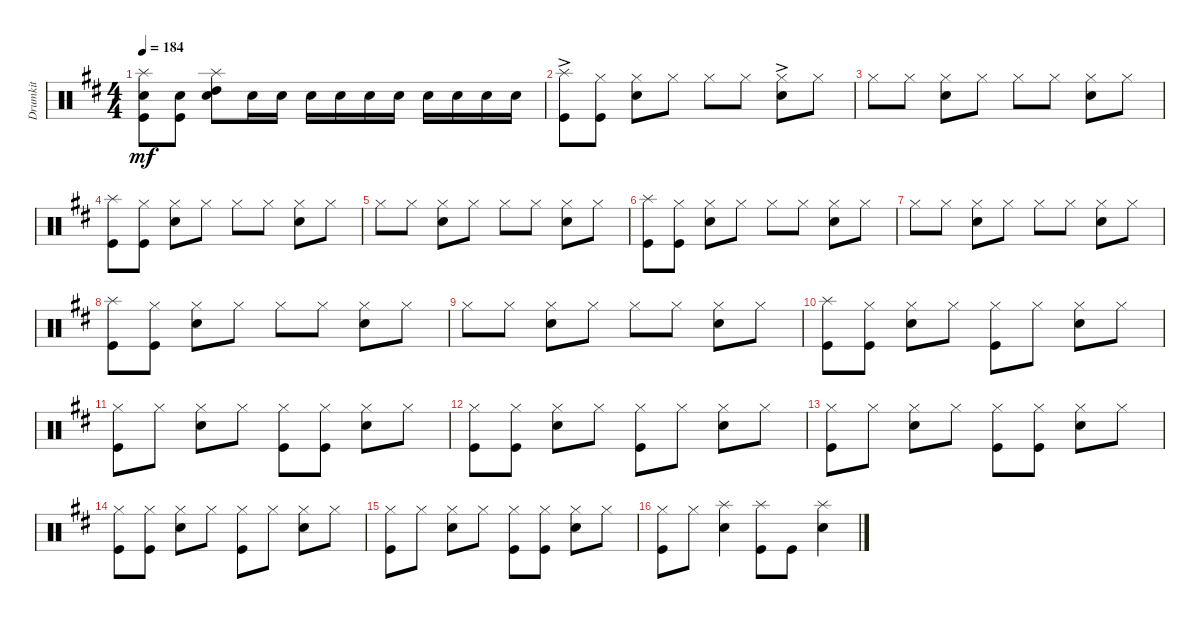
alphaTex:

\track ("Drumkit" "Drumkit") {instrument percussion}
\staff {score}
\articulation defaults
\ts (4 4)
\tempo 184
\clef neutral
\ks d
("Splash (hit)"{t} "Kick (hit)" "Snare (hit) 2").8{dy mf} ("Kick (hit)" "Snare (hit) 2").8 ("Snare (hit) 2" "High Tom (hit)" "Splash (hit)").8 "Snare (hit) 2".16 "Snare (hit) 2".16 "Snare (hit) 2".16 "Snare (hit) 2".16 "Snare (hit) 2".16 "Snare (hit) 2".16 "Snare (hit) 2".16 "Snare (hit) 2".16 "Snare (hit) 2".16 "Snare (hit) 2".16 |
("Kick (hit)" "Splash (hit)"{ac}).8 ("Kick (hit)" "Hi-Hat (closed)").8 ("Hi-Hat (closed)" "Snare (hit) 2").8 "Hi-Hat (closed)".8 "Hi-Hat (closed)".8 "Hi-Hat (closed)".8 ("Hi-Hat (closed)"{ac} "Snare (hit) 2").8 "Hi-Hat (closed)".8 |
"Hi-Hat (closed)".8 "Hi-Hat (closed)".8 ("Hi-Hat (closed)" "Snare (hit) 2").8 "Hi-Hat (closed)".8 "Hi-Hat (closed)".8 "Hi-Hat (closed)".8 ("Hi-Hat (closed)" "Snare (hit) 2").8 "Hi-Hat (closed)".8 |
("Kick (hit)" "Splash (hit)").8 ("Kick (hit)" "Hi-Hat (closed)").8 ("Hi-Hat (closed)" "Snare (hit) 2").8 "Hi-Hat (closed)".8 "Hi-Hat (closed)".8 "Hi-Hat (closed)".8 ("Hi-Hat (closed)" "Snare (hit) 2").8 "Hi-Hat (closed)".8 |
"Hi-Hat (closed)".8 "Hi-Hat (closed)".8 ("Hi-Hat (closed)" "Snare (hit) 2").8 "Hi-Hat (closed)".8 "Hi-Hat (closed)".8 "Hi-Hat (closed)".8 ("Hi-Hat (closed)" "Snare (hit) 2").8 "Hi-Hat (closed)".8 |
("Kick (hit)" "Splash (hit)").8 ("Kick (hit)" "Hi-Hat (closed)").8 ("Hi-Hat (closed)" "Snare (hit) 2").8 "Hi-Hat (closed)".8 "Hi-Hat (closed)".8 "Hi-Hat (closed)".8 ("Hi-Hat (closed)" "Snare (hit) 2").8 "Hi-Hat (closed)".8 |
"Hi-Hat (closed)".8 "Hi-Hat (closed)".8 ("Hi-Hat (closed)" "Snare (hit) 2").8 "Hi-Hat (closed)".8 "Hi-Hat (closed)".8 "Hi-Hat (closed)".8 ("Hi-Hat (closed)" "Snare (hit) 2").8 "Hi-Hat (closed)".8 |
("Kick (hit)" "Splash (hit)").8 ("Kick (hit)" "Hi-Hat (closed)").8 ("Hi-Hat (closed)" "Snare (hit) 2").8 "Hi-Hat (closed)".8 "Hi-Hat (closed)".8 "Hi-Hat (closed)".8 ("Hi-Hat (closed)" "Snare (hit) 2").8 "Hi-Hat (closed)".8 |
"Hi-Hat (closed)".8 "Hi-Hat (closed)".8 ("Hi-Hat (closed)" "Snare (hit) 2").8 "Hi-Hat (closed)".8 "Hi-Hat (closed)".8 "Hi-Hat (closed)".8 ("Hi-Hat (closed)" "Snare (hit) 2").8 "Hi-Hat (closed)".8 |
("Splash (hit)" "Kick (hit)").8 ("Hi-Hat (closed)" "Kick (hit)").8 ("Hi-Hat (closed)" "Snare (hit) 2").8 "Hi-Hat (closed)".8 ("Hi-Hat (closed)" "Kick (hit)").8 "Hi-Hat (closed)".8 ("Hi-Hat (closed)" "Snare (hit) 2").8 "Hi-Hat (closed)".8 |
("Hi-Hat (closed)" "Kick (hit)").8 "Hi-Hat (closed)".8 ("Hi-Hat (closed)" "Snare (hit) 2").8 "Hi-Hat (closed)".8 ("Hi-Hat (closed)" "Kick (hit)").8 ("Hi-Hat (closed)" "Kick (hit)").8 ("Hi-Hat (closed)" "Snare (hit) 2").8 "Hi-Hat (closed)".8 |
("Kick (hit)" "Hi-Hat (closed)").8 ("Hi-Hat (closed)" "Kick (hit)").8 ("Hi-Hat (closed)" "Snare (hit) 2").8 "Hi-Hat (closed)".8 ("Hi-Hat (closed)" "Kick (hit)").8 "Hi-Hat (closed)".8 ("Hi-Hat (closed)" "Snare (hit) 2").8 "Hi-Hat (closed)".8 |
("Hi-Hat (closed)" "Kick (hit)").8 "Hi-Hat (closed)".8 ("Hi-Hat (closed)" "Snare (hit) 2").8 "Hi-Hat (closed)".8 ("Hi-Hat (closed)" "Kick (hit)").8 ("Hi-Hat (closed)" "Kick (hit)").8 ("Hi-Hat (closed)" "Snare (hit) 2").8 "Hi-Hat (closed)".8 |
("Kick (hit)" "Hi-Hat (closed)").8 ("Hi-Hat (closed)" "Kick (hit)").8 ("Hi-Hat (closed)" "Snare (hit) 2").8 "Hi-Hat (closed)".8 ("Hi-Hat (closed)" "Kick (hit)").8 "Hi-Hat (closed)".8 ("Hi-Hat (closed)" "Snare (hit) 2").8 "Hi-Hat (closed)".8 |
("Hi-Hat (closed)" "Kick (hit)").8 "Hi-Hat (closed)".8 ("Hi-Hat (closed)" "Snare (hit) 2").8 "Hi-Hat (closed)".8 ("Hi-Hat (closed)" "Kick (hit)").8 ("Hi-Hat (closed)" "Kick (hit)").8 ("Hi-Hat (closed)" "Snare (hit) 2").8 "Hi-Hat (closed)".8 |
("Hi-Hat (closed)" "Kick (hit)").8 "Hi-Hat (closed)".8 ("Splash (hit)" "Snare (hit) 2").4 ("Splash (hit)" "Kick (hit)").8 "Kick (hit)".8 ("Splash (hit)" "Snare (hit) 2").4
